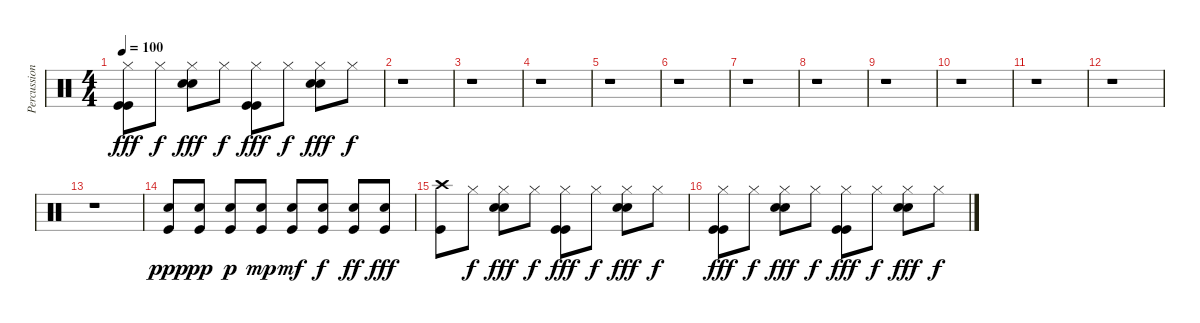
\track ("Percussion" "Percussion") {instrument percussion}
\staff {score}
\articulation defaults
\ts (4 4)
\tempo 100
\clef neutral
\ks c
("Hi-Hat (closed)" "Kick (hit)" "Kick (hit)").8{dy fff} "Hi-Hat (closed)".8{dy f} ("Hi-Hat (closed)" "Snare (hit) 2" "Snare (hit) 2").8{dy fff} "Hi-Hat (closed)".8{dy f} ("Hi-Hat (closed)" "Kick (hit)" "Kick (hit)").8{dy fff} "Hi-Hat (closed)".8{dy f} ("Hi-Hat (closed)" "Snare (hit) 2" "Snare (hit) 2").8{dy fff} "Hi-Hat (closed)".8{dy f} |
r.1 |
r.1 |
r.1 |
r.1 |
r.1 |
r.1 |
r.1 |
r.1 |
r.1 |
r.1 |
r.1 |
r.1 |
("Kick (hit)" "Snare (hit) 2").8{dy ppp} ("Kick (hit)" "Snare (hit) 2").8{dy pp} ("Kick (hit)" "Snare (hit) 2").8{dy p} ("Kick (hit)" "Snare (hit) 2").8{dy mp} ("Kick (hit)" "Snare (hit) 2").8{dy mf} ("Kick (hit)" "Snare (hit) 2").8{dy f} ("Kick (hit)" "Snare (hit) 2").8{dy ff} ("Kick (hit)" "Snare (hit) 2").8{dy fff} |
("Kick (hit)" "Crash high (hit)").8 "Hi-Hat (closed)".8{dy f} ("Hi-Hat (closed)" "Snare (hit) 2" "Snare (hit) 2").8{dy fff} "Hi-Hat (closed)".8{dy f} ("Hi-Hat (closed)" "Kick (hit)" "Kick (hit)").8{dy fff} "Hi-Hat (closed)".8{dy f} ("Hi-Hat (closed)" "Snare (hit) 2" "Snare (hit) 2").8{dy fff} "Hi-Hat (closed)".8{dy f} |
("Hi-Hat (closed)" "Kick (hit)" "Kick (hit)").8{dy fff} "Hi-Hat (closed)".8{dy f} ("Hi-Hat (closed)" "Snare (hit) 2" "Snare (hit) 2").8{dy fff} "Hi-Hat (closed)".8{dy f} ("Hi-Hat (closed)" "Kick (hit)" "Kick (hit)").8{dy fff} "Hi-Hat (closed)".8{dy f} ("Hi-Hat (closed)" "Snare (hit) 2" "Snare (hit) 2").8{dy fff} "Hi-Hat (closed)".8{dy f}
